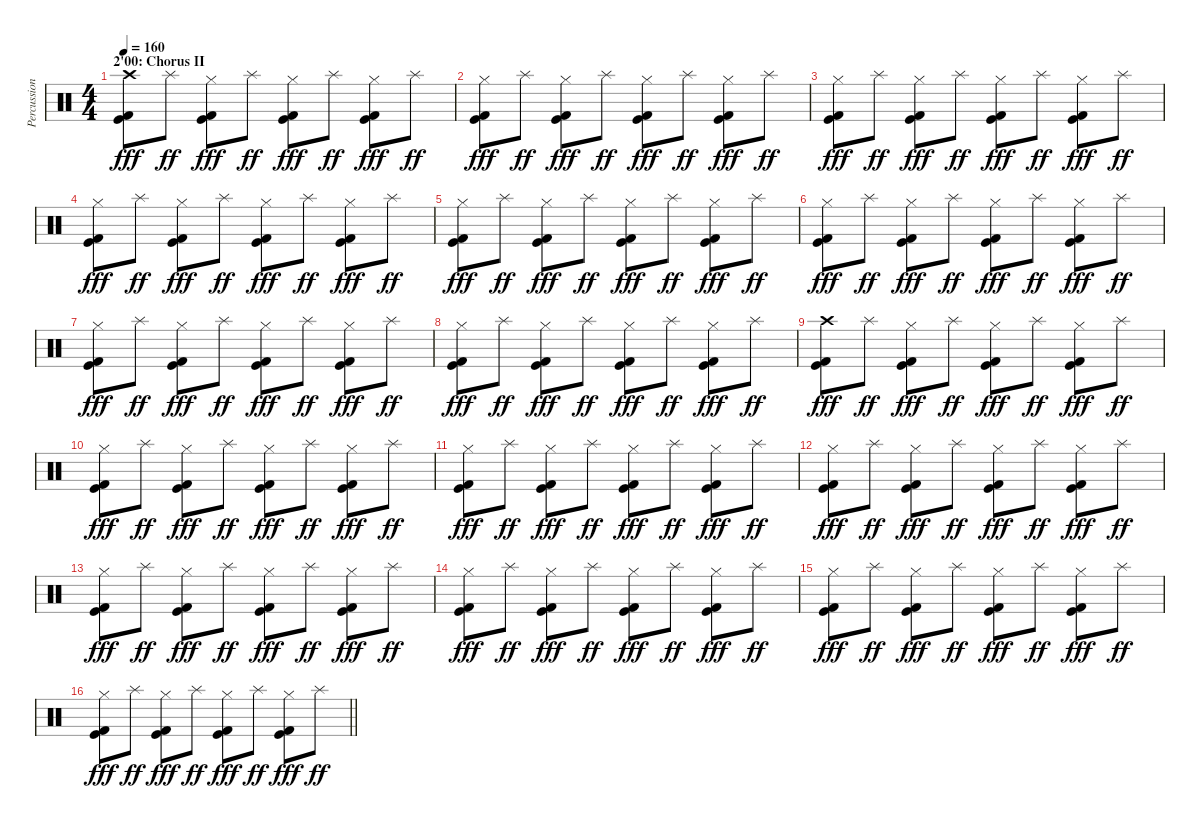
\track ("Percussions" "Percussion") {instrument percussion}
\staff {score}
\articulation defaults
\ts (4 4)
\section ("" "2'00: Chorus II")
\tempo 160
\clef neutral
\ks c
("Crash high (hit)" "Kick (hit) 2" "Kick (hit)").8{dy fff} "Splash (hit)".8{dy ff} ("Hi-Hat (closed)" "Kick (hit) 2" "Kick (hit)").8{dy fff} "Splash (hit)".8{dy ff} ("Hi-Hat (closed)" "Kick (hit) 2" "Kick (hit)").8{dy fff} "Splash (hit)".8{dy ff} ("Hi-Hat (closed)" "Kick (hit) 2" "Kick (hit)").8{dy fff} "Splash (hit)".8{dy ff} |
("Hi-Hat (closed)" "Kick (hit) 2" "Kick (hit)").8{dy fff} "Splash (hit)".8{dy ff} ("Hi-Hat (closed)" "Kick (hit) 2" "Kick (hit)").8{dy fff} "Splash (hit)".8{dy ff} ("Hi-Hat (closed)" "Kick (hit) 2" "Kick (hit)").8{dy fff} "Splash (hit)".8{dy ff} ("Hi-Hat (closed)" "Kick (hit) 2" "Kick (hit)").8{dy fff} "Splash (hit)".8{dy ff} |
("Hi-Hat (closed)" "Kick (hit) 2" "Kick (hit)").8{dy fff} "Splash (hit)".8{dy ff} ("Hi-Hat (closed)" "Kick (hit) 2" "Kick (hit)").8{dy fff} "Splash (hit)".8{dy ff} ("Hi-Hat (closed)" "Kick (hit) 2" "Kick (hit)").8{dy fff} "Splash (hit)".8{dy ff} ("Hi-Hat (closed)" "Kick (hit) 2" "Kick (hit)").8{dy fff} "Splash (hit)".8{dy ff} |
("Hi-Hat (closed)" "Kick (hit) 2" "Kick (hit)").8{dy fff} "Splash (hit)".8{dy ff} ("Hi-Hat (closed)" "Kick (hit) 2" "Kick (hit)").8{dy fff} "Splash (hit)".8{dy ff} ("Hi-Hat (closed)" "Kick (hit) 2" "Kick (hit)").8{dy fff} "Splash (hit)".8{dy ff} ("Hi-Hat (closed)" "Kick (hit) 2" "Kick (hit)").8{dy fff} "Splash (hit)".8{dy ff} |
("Hi-Hat (closed)" "Kick (hit) 2" "Kick (hit)").8{dy fff} "Splash (hit)".8{dy ff} ("Hi-Hat (closed)" "Kick (hit) 2" "Kick (hit)").8{dy fff} "Splash (hit)".8{dy ff} ("Hi-Hat (closed)" "Kick (hit) 2" "Kick (hit)").8{dy fff} "Splash (hit)".8{dy ff} ("Hi-Hat (closed)" "Kick (hit) 2" "Kick (hit)").8{dy fff} "Splash (hit)".8{dy ff} |
("Hi-Hat (closed)" "Kick (hit) 2" "Kick (hit)").8{dy fff} "Splash (hit)".8{dy ff} ("Hi-Hat (closed)" "Kick (hit) 2" "Kick (hit)").8{dy fff} "Splash (hit)".8{dy ff} ("Hi-Hat (closed)" "Kick (hit) 2" "Kick (hit)").8{dy fff} "Splash (hit)".8{dy ff} ("Hi-Hat (closed)" "Kick (hit) 2" "Kick (hit)").8{dy fff} "Splash (hit)".8{dy ff} |
("Hi-Hat (closed)" "Kick (hit) 2" "Kick (hit)").8{dy fff} "Splash (hit)".8{dy ff} ("Hi-Hat (closed)" "Kick (hit) 2" "Kick (hit)").8{dy fff} "Splash (hit)".8{dy ff} ("Hi-Hat (closed)" "Kick (hit) 2" "Kick (hit)").8{dy fff} "Splash (hit)".8{dy ff} ("Hi-Hat (closed)" "Kick (hit) 2" "Kick (hit)").8{dy fff} "Splash (hit)".8{dy ff} |
("Hi-Hat (closed)" "Kick (hit) 2" "Kick (hit)").8{dy fff} "Splash (hit)".8{dy ff} ("Hi-Hat (closed)" "Kick (hit) 2" "Kick (hit)").8{dy fff} "Splash (hit)".8{dy ff} ("Hi-Hat (closed)" "Kick (hit) 2" "Kick (hit)").8{dy fff} "Splash (hit)".8{dy ff} ("Hi-Hat (closed)" "Kick (hit) 2" "Kick (hit)").8{dy fff} "Splash (hit)".8{dy ff} |
("Crash high (hit)" "Kick (hit) 2" "Kick (hit)").8{dy fff} "Splash (hit)".8{dy ff} ("Hi-Hat (closed)" "Kick (hit) 2" "Kick (hit)").8{dy fff} "Splash (hit)".8{dy ff} ("Hi-Hat (closed)" "Kick (hit) 2" "Kick (hit)").8{dy fff} "Splash (hit)".8{dy ff} ("Hi-Hat (closed)" "Kick (hit) 2" "Kick (hit)").8{dy fff} "Splash (hit)".8{dy ff} |
("Hi-Hat (closed)" "Kick (hit) 2" "Kick (hit)").8{dy fff} "Splash (hit)".8{dy ff} ("Hi-Hat (closed)" "Kick (hit) 2" "Kick (hit)").8{dy fff} "Splash (hit)".8{dy ff} ("Hi-Hat (closed)" "Kick (hit) 2" "Kick (hit)").8{dy fff} "Splash (hit)".8{dy ff} ("Hi-Hat (closed)" "Kick (hit) 2" "Kick (hit)").8{dy fff} "Splash (hit)".8{dy ff} |
("Hi-Hat (closed)" "Kick (hit) 2" "Kick (hit)").8{dy fff} "Splash (hit)".8{dy ff} ("Hi-Hat (closed)" "Kick (hit) 2" "Kick (hit)").8{dy fff} "Splash (hit)".8{dy ff} ("Hi-Hat (closed)" "Kick (hit) 2" "Kick (hit)").8{dy fff} "Splash (hit)".8{dy ff} ("Hi-Hat (closed)" "Kick (hit) 2" "Kick (hit)").8{dy fff} "Splash (hit)".8{dy ff} |
("Hi-Hat (closed)" "Kick (hit) 2" "Kick (hit)").8{dy fff} "Splash (hit)".8{dy ff} ("Hi-Hat (closed)" "Kick (hit) 2" "Kick (hit)").8{dy fff} "Splash (hit)".8{dy ff} ("Hi-Hat (closed)" "Kick (hit) 2" "Kick (hit)").8{dy fff} "Splash (hit)".8{dy ff} ("Hi-Hat (closed)" "Kick (hit) 2" "Kick (hit)").8{dy fff} "Splash (hit)".8{dy ff} |
("Hi-Hat (closed)" "Kick (hit) 2" "Kick (hit)").8{dy fff} "Splash (hit)".8{dy ff} ("Hi-Hat (closed)" "Kick (hit) 2" "Kick (hit)").8{dy fff} "Splash (hit)".8{dy ff} ("Hi-Hat (closed)" "Kick (hit) 2" "Kick (hit)").8{dy fff} "Splash (hit)".8{dy ff} ("Hi-Hat (closed)" "Kick (hit) 2" "Kick (hit)").8{dy fff} "Splash (hit)".8{dy ff} |
("Hi-Hat (closed)" "Kick (hit) 2" "Kick (hit)").8{dy fff} "Splash (hit)".8{dy ff} ("Hi-Hat (closed)" "Kick (hit) 2" "Kick (hit)").8{dy fff} "Splash (hit)".8{dy ff} ("Hi-Hat (closed)" "Kick (hit) 2" "Kick (hit)").8{dy fff} "Splash (hit)".8{dy ff} ("Hi-Hat (closed)" "Kick (hit) 2" "Kick (hit)").8{dy fff} "Splash (hit)".8{dy ff} |
("Hi-Hat (closed)" "Kick (hit) 2" "Kick (hit)").8{dy fff} "Splash (hit)".8{dy ff} ("Hi-Hat (closed)" "Kick (hit) 2" "Kick (hit)").8{dy fff} "Splash (hit)".8{dy ff} ("Hi-Hat (closed)" "Kick (hit) 2" "Kick (hit)").8{dy fff} "Splash (hit)".8{dy ff} ("Hi-Hat (closed)" "Kick (hit) 2" "Kick (hit)").8{dy fff} "Splash (hit)".8{dy ff} |
\barLineRight lightlight
("Hi-Hat (closed)" "Kick (hit) 2" "Kick (hit)").8{dy fff} "Splash (hit)".8{dy ff} ("Hi-Hat (closed)" "Kick (hit) 2" "Kick (hit)").8{dy fff} "Splash (hit)".8{dy ff} ("Hi-Hat (closed)" "Kick (hit) 2" "Kick (hit)").8{dy fff} "Splash (hit)".8{dy ff} ("Hi-Hat (closed)" "Kick (hit) 2" "Kick (hit)").8{dy fff} "Splash (hit)".8{dy ff}
